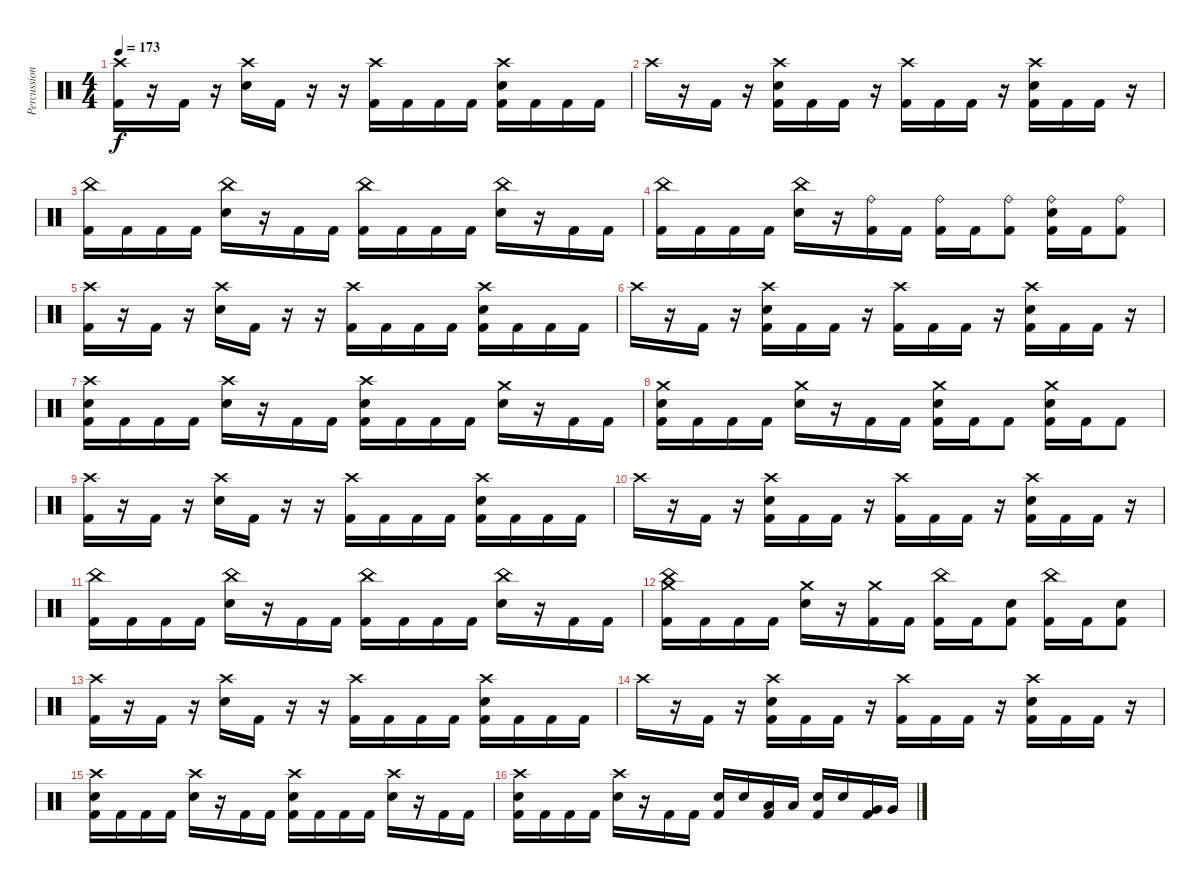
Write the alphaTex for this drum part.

\track ("Percussion" "Percussion") {instrument percussion}
\staff {score}
\articulation defaults
\ts (4 4)
\tempo 173
\clef neutral
\ks c
("Crash high (hit)" "Kick (hit) 2").16{dy f} r.16 "Kick (hit) 2".16 r.16 ("Crash high (hit)" "Electric Snare (hit)").16 "Kick (hit) 2".16 r.16 r.16 ("Crash high (hit)" "Kick (hit) 2").16 "Kick (hit) 2".16 "Kick (hit) 2".16 "Kick (hit) 2".16 ("Crash high (hit)" "Electric Snare (hit)" "Kick (hit) 2").16 "Kick (hit) 2".16 "Kick (hit) 2".16 "Kick (hit) 2".16 |
"Crash high (hit)".16 r.16 "Kick (hit) 2".16 r.16 ("Crash high (hit)" "Electric Snare (hit)" "Kick (hit) 2").16 "Kick (hit) 2".16 "Kick (hit) 2".16 r.16 ("Crash high (hit)" "Kick (hit) 2").16 "Kick (hit) 2".16 "Kick (hit) 2".16 r.16 ("Crash high (hit)" "Electric Snare (hit)" "Kick (hit) 2").16 "Kick (hit) 2".16 "Kick (hit) 2".16 r.16 |
("China (hit)" "Kick (hit) 2").16 "Kick (hit) 2".16 "Kick (hit) 2".16 "Kick (hit) 2".16 ("China (hit)" "Electric Snare (hit)").16 r.16 "Kick (hit) 2".16 "Kick (hit) 2".16 ("China (hit)" "Kick (hit) 2").16 "Kick (hit) 2".16 "Kick (hit) 2".16 "Kick (hit) 2".16 ("China (hit)" "Electric Snare (hit)").16 r.16 "Kick (hit) 2".16 "Kick (hit) 2".16 |
("China (hit)" "Kick (hit) 2").16 "Kick (hit) 2".16 "Kick (hit) 2".16 "Kick (hit) 2".16 ("China (hit)" "Electric Snare (hit)").16 r.16 ("Ride (bell)" "Kick (hit) 2").16 "Kick (hit) 2".16 ("Ride (bell)" "Kick (hit) 2").16 "Kick (hit) 2".16 ("Ride (bell)" "Kick (hit) 2").8 ("Ride (bell)" "Electric Snare (hit)" "Kick (hit) 2").16 "Kick (hit) 2".16 ("Ride (bell)" "Kick (hit) 2").8 |
("Crash high (hit)" "Kick (hit) 2").16 r.16 "Kick (hit) 2".16 r.16 ("Crash high (hit)" "Electric Snare (hit)").16 "Kick (hit) 2".16 r.16 r.16 ("Crash high (hit)" "Kick (hit) 2").16 "Kick (hit) 2".16 "Kick (hit) 2".16 "Kick (hit) 2".16 ("Crash high (hit)" "Electric Snare (hit)" "Kick (hit) 2").16 "Kick (hit) 2".16 "Kick (hit) 2".16 "Kick (hit) 2".16 |
"Crash high (hit)".16 r.16 "Kick (hit) 2".16 r.16 ("Crash high (hit)" "Electric Snare (hit)" "Kick (hit) 2").16 "Kick (hit) 2".16 "Kick (hit) 2".16 r.16 ("Crash high (hit)" "Kick (hit) 2").16 "Kick (hit) 2".16 "Kick (hit) 2".16 r.16 ("Crash high (hit)" "Electric Snare (hit)" "Kick (hit) 2").16 "Kick (hit) 2".16 "Kick (hit) 2".16 r.16 |
("Crash high (hit)" "Electric Snare (hit)" "Kick (hit) 2").16 "Kick (hit) 2".16 "Kick (hit) 2".16 "Kick (hit) 2".16 ("Crash high (hit)" "Electric Snare (hit)").16 r.16 "Kick (hit) 2".16 "Kick (hit) 2".16 ("Crash high (hit)" "Electric Snare (hit)" "Kick (hit) 2").16 "Kick (hit) 2".16 "Kick (hit) 2".16 "Kick (hit) 2".16 ("Crash medium (hit)" "Electric Snare (hit)").16 r.16 "Kick (hit) 2".16 "Kick (hit) 2".16 |
("Crash medium (hit)" "Electric Snare (hit)" "Kick (hit) 2").16 "Kick (hit) 2".16 "Kick (hit) 2".16 "Kick (hit) 2".16 ("Crash medium (hit)" "Electric Snare (hit)").16 r.16 "Kick (hit) 2".16 "Kick (hit) 2".16 ("Crash medium (hit)" "Electric Snare (hit)" "Kick (hit) 2").16 "Kick (hit) 2".16 "Kick (hit) 2".8 ("Crash medium (hit)" "Electric Snare (hit)" "Kick (hit) 2").16 "Kick (hit) 2".16 "Kick (hit) 2".8 |
("Crash high (hit)" "Kick (hit) 2").16 r.16 "Kick (hit) 2".16 r.16 ("Crash high (hit)" "Electric Snare (hit)").16 "Kick (hit) 2".16 r.16 r.16 ("Crash high (hit)" "Kick (hit) 2").16 "Kick (hit) 2".16 "Kick (hit) 2".16 "Kick (hit) 2".16 ("Crash high (hit)" "Electric Snare (hit)" "Kick (hit) 2").16 "Kick (hit) 2".16 "Kick (hit) 2".16 "Kick (hit) 2".16 |
"Crash high (hit)".16 r.16 "Kick (hit) 2".16 r.16 ("Crash high (hit)" "Electric Snare (hit)" "Kick (hit) 2").16 "Kick (hit) 2".16 "Kick (hit) 2".16 r.16 ("Crash high (hit)" "Kick (hit) 2").16 "Kick (hit) 2".16 "Kick (hit) 2".16 r.16 ("Crash high (hit)" "Electric Snare (hit)" "Kick (hit) 2").16 "Kick (hit) 2".16 "Kick (hit) 2".16 r.16 |
("China (hit)" "Kick (hit) 2").16 "Kick (hit) 2".16 "Kick (hit) 2".16 "Kick (hit) 2".16 ("China (hit)" "Electric Snare (hit)").16 r.16 "Kick (hit) 2".16 "Kick (hit) 2".16 ("China (hit)" "Kick (hit) 2").16 "Kick (hit) 2".16 "Kick (hit) 2".16 "Kick (hit) 2".16 ("China (hit)" "Electric Snare (hit)").16 r.16 "Kick (hit) 2".16 "Kick (hit) 2".16 |
("China (hit)" "Crash medium (hit)" "Kick (hit) 2").16 "Kick (hit) 2".16 "Kick (hit) 2".16 "Kick (hit) 2".16 ("Crash medium (hit)" "Electric Snare (hit)").16 r.16 ("Crash medium (hit)" "Kick (hit) 2").16 "Kick (hit) 2".16 ("China (hit)" "Kick (hit) 2").16 "Kick (hit) 2".16 ("Electric Snare (hit)" "Kick (hit) 2").8 ("China (hit)" "Kick (hit) 2").16 "Kick (hit) 2".16 ("Electric Snare (hit)" "Kick (hit) 2").8 |
("Crash high (hit)" "Kick (hit) 2").16 r.16 "Kick (hit) 2".16 r.16 ("Crash high (hit)" "Electric Snare (hit)").16 "Kick (hit) 2".16 r.16 r.16 ("Crash high (hit)" "Kick (hit) 2").16 "Kick (hit) 2".16 "Kick (hit) 2".16 "Kick (hit) 2".16 ("Crash high (hit)" "Electric Snare (hit)" "Kick (hit) 2").16 "Kick (hit) 2".16 "Kick (hit) 2".16 "Kick (hit) 2".16 |
"Crash high (hit)".16 r.16 "Kick (hit) 2".16 r.16 ("Crash high (hit)" "Electric Snare (hit)" "Kick (hit) 2").16 "Kick (hit) 2".16 "Kick (hit) 2".16 r.16 ("Crash high (hit)" "Kick (hit) 2").16 "Kick (hit) 2".16 "Kick (hit) 2".16 r.16 ("Crash high (hit)" "Electric Snare (hit)" "Kick (hit) 2").16 "Kick (hit) 2".16 "Kick (hit) 2".16 r.16 |
("Crash high (hit)" "Electric Snare (hit)" "Kick (hit) 2").16 "Kick (hit) 2".16 "Kick (hit) 2".16 "Kick (hit) 2".16 ("Crash high (hit)" "Electric Snare (hit)").16 r.16 "Kick (hit) 2".16 "Kick (hit) 2".16 ("Crash high (hit)" "Electric Snare (hit)" "Kick (hit) 2").16 "Kick (hit) 2".16 "Kick (hit) 2".16 "Kick (hit) 2".16 ("Crash high (hit)" "Electric Snare (hit)").16 r.16 "Kick (hit) 2".16 "Kick (hit) 2".16 |
("Crash high (hit)" "Electric Snare (hit)" "Kick (hit) 2").16 "Kick (hit) 2".16 "Kick (hit) 2".16 "Kick (hit) 2".16 ("Crash high (hit)" "Electric Snare (hit)").16 r.16 "Kick (hit) 2".16 "Kick (hit) 2".16 ("Electric Snare (hit)" "Kick (hit) 2").16 "Electric Snare (hit)".16 ("Low Floor Tom (hit)" "Kick (hit) 2").16 "Low Floor Tom (hit)".16 ("Electric Snare (hit)" "Kick (hit) 2").16 "Electric Snare (hit)".16 ("Very Low Tom (hit)" "Kick (hit) 2").16 "Very Low Tom (hit)".16
